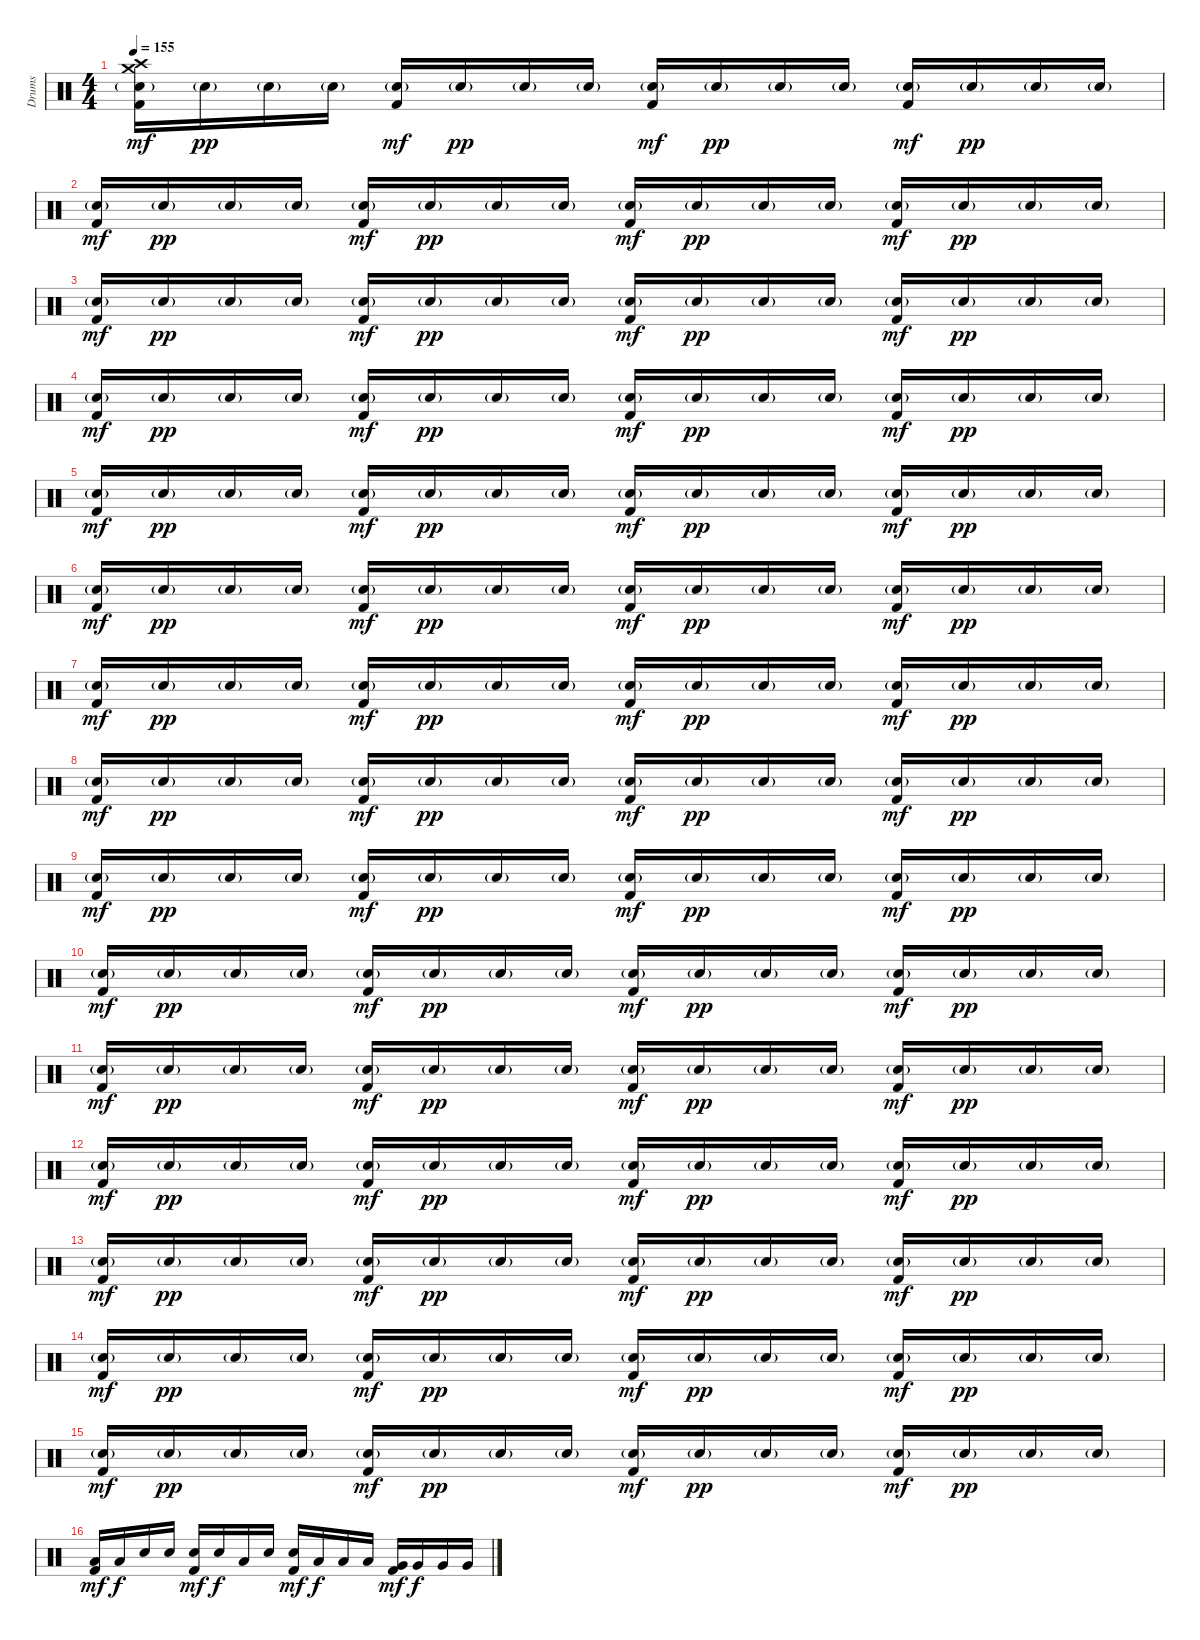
\track ("Drums" "Drums") {instrument percussion}
\staff {score}
\articulation defaults
\ts (4 4)
\tempo 155
\clef neutral
\ks c
("Electric Snare (hit)"{g} "Kick (hit) 2" "Crash high (hit)" "Crash medium (hit)").16{dy mf} "Electric Snare (hit)"{g}.16{dy pp} "Electric Snare (hit)"{g}.16 "Electric Snare (hit)"{g}.16 ("Electric Snare (hit)"{g} "Kick (hit) 2").16{dy mf} "Electric Snare (hit)"{g}.16{dy pp} "Electric Snare (hit)"{g}.16 "Electric Snare (hit)"{g}.16 ("Electric Snare (hit)"{g} "Kick (hit) 2").16{dy mf} "Electric Snare (hit)"{g}.16{dy pp} "Electric Snare (hit)"{g}.16 "Electric Snare (hit)"{g}.16 ("Electric Snare (hit)"{g} "Kick (hit) 2").16{dy mf} "Electric Snare (hit)"{g}.16{dy pp} "Electric Snare (hit)"{g}.16 "Electric Snare (hit)"{g}.16 |
("Electric Snare (hit)"{g} "Kick (hit) 2").16{dy mf} "Electric Snare (hit)"{g}.16{dy pp} "Electric Snare (hit)"{g}.16 "Electric Snare (hit)"{g}.16 ("Electric Snare (hit)"{g} "Kick (hit) 2").16{dy mf} "Electric Snare (hit)"{g}.16{dy pp} "Electric Snare (hit)"{g}.16 "Electric Snare (hit)"{g}.16 ("Electric Snare (hit)"{g} "Kick (hit) 2").16{dy mf} "Electric Snare (hit)"{g}.16{dy pp} "Electric Snare (hit)"{g}.16 "Electric Snare (hit)"{g}.16 ("Electric Snare (hit)"{g} "Kick (hit) 2").16{dy mf} "Electric Snare (hit)"{g}.16{dy pp} "Electric Snare (hit)"{g}.16 "Electric Snare (hit)"{g}.16 |
("Electric Snare (hit)"{g} "Kick (hit) 2").16{dy mf} "Electric Snare (hit)"{g}.16{dy pp} "Electric Snare (hit)"{g}.16 "Electric Snare (hit)"{g}.16 ("Electric Snare (hit)"{g} "Kick (hit) 2").16{dy mf} "Electric Snare (hit)"{g}.16{dy pp} "Electric Snare (hit)"{g}.16 "Electric Snare (hit)"{g}.16 ("Electric Snare (hit)"{g} "Kick (hit) 2").16{dy mf} "Electric Snare (hit)"{g}.16{dy pp} "Electric Snare (hit)"{g}.16 "Electric Snare (hit)"{g}.16 ("Electric Snare (hit)"{g} "Kick (hit) 2").16{dy mf} "Electric Snare (hit)"{g}.16{dy pp} "Electric Snare (hit)"{g}.16 "Electric Snare (hit)"{g}.16 |
("Electric Snare (hit)"{g} "Kick (hit) 2").16{dy mf} "Electric Snare (hit)"{g}.16{dy pp} "Electric Snare (hit)"{g}.16 "Electric Snare (hit)"{g}.16 ("Electric Snare (hit)"{g} "Kick (hit) 2").16{dy mf} "Electric Snare (hit)"{g}.16{dy pp} "Electric Snare (hit)"{g}.16 "Electric Snare (hit)"{g}.16 ("Electric Snare (hit)"{g} "Kick (hit) 2").16{dy mf} "Electric Snare (hit)"{g}.16{dy pp} "Electric Snare (hit)"{g}.16 "Electric Snare (hit)"{g}.16 ("Electric Snare (hit)"{g} "Kick (hit) 2").16{dy mf} "Electric Snare (hit)"{g}.16{dy pp} "Electric Snare (hit)"{g}.16 "Electric Snare (hit)"{g}.16 |
("Electric Snare (hit)"{g} "Kick (hit) 2").16{dy mf} "Electric Snare (hit)"{g}.16{dy pp} "Electric Snare (hit)"{g}.16 "Electric Snare (hit)"{g}.16 ("Electric Snare (hit)"{g} "Kick (hit) 2").16{dy mf} "Electric Snare (hit)"{g}.16{dy pp} "Electric Snare (hit)"{g}.16 "Electric Snare (hit)"{g}.16 ("Electric Snare (hit)"{g} "Kick (hit) 2").16{dy mf} "Electric Snare (hit)"{g}.16{dy pp} "Electric Snare (hit)"{g}.16 "Electric Snare (hit)"{g}.16 ("Electric Snare (hit)"{g} "Kick (hit) 2").16{dy mf} "Electric Snare (hit)"{g}.16{dy pp} "Electric Snare (hit)"{g}.16 "Electric Snare (hit)"{g}.16 |
("Electric Snare (hit)"{g} "Kick (hit) 2").16{dy mf} "Electric Snare (hit)"{g}.16{dy pp} "Electric Snare (hit)"{g}.16 "Electric Snare (hit)"{g}.16 ("Electric Snare (hit)"{g} "Kick (hit) 2").16{dy mf} "Electric Snare (hit)"{g}.16{dy pp} "Electric Snare (hit)"{g}.16 "Electric Snare (hit)"{g}.16 ("Electric Snare (hit)"{g} "Kick (hit) 2").16{dy mf} "Electric Snare (hit)"{g}.16{dy pp} "Electric Snare (hit)"{g}.16 "Electric Snare (hit)"{g}.16 ("Electric Snare (hit)"{g} "Kick (hit) 2").16{dy mf} "Electric Snare (hit)"{g}.16{dy pp} "Electric Snare (hit)"{g}.16 "Electric Snare (hit)"{g}.16 |
("Electric Snare (hit)"{g} "Kick (hit) 2").16{dy mf} "Electric Snare (hit)"{g}.16{dy pp} "Electric Snare (hit)"{g}.16 "Electric Snare (hit)"{g}.16 ("Electric Snare (hit)"{g} "Kick (hit) 2").16{dy mf} "Electric Snare (hit)"{g}.16{dy pp} "Electric Snare (hit)"{g}.16 "Electric Snare (hit)"{g}.16 ("Electric Snare (hit)"{g} "Kick (hit) 2").16{dy mf} "Electric Snare (hit)"{g}.16{dy pp} "Electric Snare (hit)"{g}.16 "Electric Snare (hit)"{g}.16 ("Electric Snare (hit)"{g} "Kick (hit) 2").16{dy mf} "Electric Snare (hit)"{g}.16{dy pp} "Electric Snare (hit)"{g}.16 "Electric Snare (hit)"{g}.16 |
("Electric Snare (hit)"{g} "Kick (hit) 2").16{dy mf} "Electric Snare (hit)"{g}.16{dy pp} "Electric Snare (hit)"{g}.16 "Electric Snare (hit)"{g}.16 ("Electric Snare (hit)"{g} "Kick (hit) 2").16{dy mf} "Electric Snare (hit)"{g}.16{dy pp} "Electric Snare (hit)"{g}.16 "Electric Snare (hit)"{g}.16 ("Electric Snare (hit)"{g} "Kick (hit) 2").16{dy mf} "Electric Snare (hit)"{g}.16{dy pp} "Electric Snare (hit)"{g}.16 "Electric Snare (hit)"{g}.16 ("Electric Snare (hit)"{g} "Kick (hit) 2").16{dy mf} "Electric Snare (hit)"{g}.16{dy pp} "Electric Snare (hit)"{g}.16 "Electric Snare (hit)"{g}.16 |
("Electric Snare (hit)"{g} "Kick (hit) 2").16{dy mf} "Electric Snare (hit)"{g}.16{dy pp} "Electric Snare (hit)"{g}.16 "Electric Snare (hit)"{g}.16 ("Electric Snare (hit)"{g} "Kick (hit) 2").16{dy mf} "Electric Snare (hit)"{g}.16{dy pp} "Electric Snare (hit)"{g}.16 "Electric Snare (hit)"{g}.16 ("Electric Snare (hit)"{g} "Kick (hit) 2").16{dy mf} "Electric Snare (hit)"{g}.16{dy pp} "Electric Snare (hit)"{g}.16 "Electric Snare (hit)"{g}.16 ("Electric Snare (hit)"{g} "Kick (hit) 2").16{dy mf} "Electric Snare (hit)"{g}.16{dy pp} "Electric Snare (hit)"{g}.16 "Electric Snare (hit)"{g}.16 |
("Electric Snare (hit)"{g} "Kick (hit) 2").16{dy mf} "Electric Snare (hit)"{g}.16{dy pp} "Electric Snare (hit)"{g}.16 "Electric Snare (hit)"{g}.16 ("Electric Snare (hit)"{g} "Kick (hit) 2").16{dy mf} "Electric Snare (hit)"{g}.16{dy pp} "Electric Snare (hit)"{g}.16 "Electric Snare (hit)"{g}.16 ("Electric Snare (hit)"{g} "Kick (hit) 2").16{dy mf} "Electric Snare (hit)"{g}.16{dy pp} "Electric Snare (hit)"{g}.16 "Electric Snare (hit)"{g}.16 ("Electric Snare (hit)"{g} "Kick (hit) 2").16{dy mf} "Electric Snare (hit)"{g}.16{dy pp} "Electric Snare (hit)"{g}.16 "Electric Snare (hit)"{g}.16 |
("Electric Snare (hit)"{g} "Kick (hit) 2").16{dy mf} "Electric Snare (hit)"{g}.16{dy pp} "Electric Snare (hit)"{g}.16 "Electric Snare (hit)"{g}.16 ("Electric Snare (hit)"{g} "Kick (hit) 2").16{dy mf} "Electric Snare (hit)"{g}.16{dy pp} "Electric Snare (hit)"{g}.16 "Electric Snare (hit)"{g}.16 ("Electric Snare (hit)"{g} "Kick (hit) 2").16{dy mf} "Electric Snare (hit)"{g}.16{dy pp} "Electric Snare (hit)"{g}.16 "Electric Snare (hit)"{g}.16 ("Electric Snare (hit)"{g} "Kick (hit) 2").16{dy mf} "Electric Snare (hit)"{g}.16{dy pp} "Electric Snare (hit)"{g}.16 "Electric Snare (hit)"{g}.16 |
("Electric Snare (hit)"{g} "Kick (hit) 2").16{dy mf} "Electric Snare (hit)"{g}.16{dy pp} "Electric Snare (hit)"{g}.16 "Electric Snare (hit)"{g}.16 ("Electric Snare (hit)"{g} "Kick (hit) 2").16{dy mf} "Electric Snare (hit)"{g}.16{dy pp} "Electric Snare (hit)"{g}.16 "Electric Snare (hit)"{g}.16 ("Electric Snare (hit)"{g} "Kick (hit) 2").16{dy mf} "Electric Snare (hit)"{g}.16{dy pp} "Electric Snare (hit)"{g}.16 "Electric Snare (hit)"{g}.16 ("Electric Snare (hit)"{g} "Kick (hit) 2").16{dy mf} "Electric Snare (hit)"{g}.16{dy pp} "Electric Snare (hit)"{g}.16 "Electric Snare (hit)"{g}.16 |
("Electric Snare (hit)"{g} "Kick (hit) 2").16{dy mf} "Electric Snare (hit)"{g}.16{dy pp} "Electric Snare (hit)"{g}.16 "Electric Snare (hit)"{g}.16 ("Electric Snare (hit)"{g} "Kick (hit) 2").16{dy mf} "Electric Snare (hit)"{g}.16{dy pp} "Electric Snare (hit)"{g}.16 "Electric Snare (hit)"{g}.16 ("Electric Snare (hit)"{g} "Kick (hit) 2").16{dy mf} "Electric Snare (hit)"{g}.16{dy pp} "Electric Snare (hit)"{g}.16 "Electric Snare (hit)"{g}.16 ("Electric Snare (hit)"{g} "Kick (hit) 2").16{dy mf} "Electric Snare (hit)"{g}.16{dy pp} "Electric Snare (hit)"{g}.16 "Electric Snare (hit)"{g}.16 |
("Electric Snare (hit)"{g} "Kick (hit) 2").16{dy mf} "Electric Snare (hit)"{g}.16{dy pp} "Electric Snare (hit)"{g}.16 "Electric Snare (hit)"{g}.16 ("Electric Snare (hit)"{g} "Kick (hit) 2").16{dy mf} "Electric Snare (hit)"{g}.16{dy pp} "Electric Snare (hit)"{g}.16 "Electric Snare (hit)"{g}.16 ("Electric Snare (hit)"{g} "Kick (hit) 2").16{dy mf} "Electric Snare (hit)"{g}.16{dy pp} "Electric Snare (hit)"{g}.16 "Electric Snare (hit)"{g}.16 ("Electric Snare (hit)"{g} "Kick (hit) 2").16{dy mf} "Electric Snare (hit)"{g}.16{dy pp} "Electric Snare (hit)"{g}.16 "Electric Snare (hit)"{g}.16 |
("Electric Snare (hit)"{g} "Kick (hit) 2").16{dy mf} "Electric Snare (hit)"{g}.16{dy pp} "Electric Snare (hit)"{g}.16 "Electric Snare (hit)"{g}.16 ("Electric Snare (hit)"{g} "Kick (hit) 2").16{dy mf} "Electric Snare (hit)"{g}.16{dy pp} "Electric Snare (hit)"{g}.16 "Electric Snare (hit)"{g}.16 ("Electric Snare (hit)"{g} "Kick (hit) 2").16{dy mf} "Electric Snare (hit)"{g}.16{dy pp} "Electric Snare (hit)"{g}.16 "Electric Snare (hit)"{g}.16 ("Electric Snare (hit)"{g} "Kick (hit) 2").16{dy mf} "Electric Snare (hit)"{g}.16{dy pp} "Electric Snare (hit)"{g}.16 "Electric Snare (hit)"{g}.16 |
("Low Tom (hit)" "Kick (hit) 2").16{dy mf} "Low Tom (hit)".16{dy f} "Electric Snare (hit)".16 "Electric Snare (hit)".16 ("Electric Snare (hit)" "Kick (hit) 2").16{dy mf} "Electric Snare (hit)".16{dy f} "Low Tom (hit)".16 "Electric Snare (hit)".16 ("Electric Snare (hit)" "Kick (hit) 2").16{dy mf} "Low Tom (hit)".16{dy f} "Low Tom (hit)".16 "Low Tom (hit)".16 ("Very Low Tom (hit)" "Kick (hit) 2").16{dy mf} "Very Low Tom (hit)".16{dy f} "Very Low Tom (hit)".16 "Very Low Tom (hit)".16
